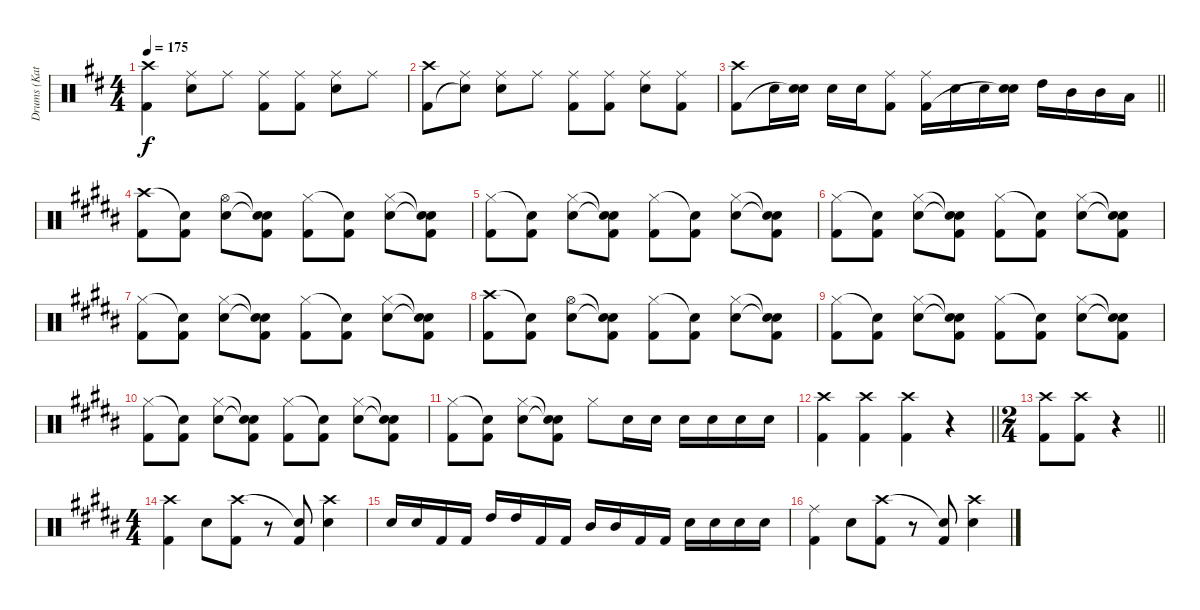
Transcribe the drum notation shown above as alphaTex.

\track ("Drums (Katsuji)" "Drums (Kat") {instrument percussion}
\staff {score}
\articulation defaults
\ts (4 4)
\tempo 175
\clef neutral
\ks d
("Crash high (hit)" "Kick (hit) 2").4{dy f} ("Ride (middle)" "Snare (hit) 2").8 "Ride (middle)".8 ("Ride (middle)" "Kick (hit) 2").8 ("Ride (middle)" "Kick (hit) 2").8 ("Ride (middle)" "Snare (hit) 2").8 "Ride (middle)".8 |
("Crash high (hit)" "Kick (hit) 2").8 ("Ride (middle)" "Snare (hit)"{t}).8 ("Ride (middle)" "Snare (hit) 2").8 "Ride (middle)".8 ("Ride (middle)" "Kick (hit) 2").8 ("Ride (middle)" "Kick (hit) 2").8 ("Ride (middle)" "Snare (hit) 2").8 ("Ride (middle)" "Kick (hit) 2").8 |
\barLineRight lightlight
("Crash high (hit)" "Kick (hit) 2").8 "Snare (hit) 2".16 ("Snare (hit) 2" "Snare (hit)"{t}).16 "Snare (hit) 2".16 "Snare (hit) 2".16 ("Ride (middle)" "Kick (hit) 2").8 ("Ride (middle)" "Kick (hit) 2").16 "Snare (hit) 2".16 "Snare (hit) 2".16 ("Snare (hit) 2" "Snare (hit)"{t}).16 "High Tom (hit)".16 "Mid Tom (hit)".16 "Mid Tom (hit)".16 "Low Tom (hit)".16 |
\ks b
("Crash high (hit)" "Kick (hit) 2").8 ("Snare (hit)"{t} "Kick (hit) 2").8 ("Hi-Hat (open)" "Snare (hit) 2").8 ("Snare (hit)"{t} "Snare (hit)"{t} "Kick (hit) 2").8 ("Hi-Hat (closed)" "Kick (hit) 2").8 ("Snare (hit)"{t} "Kick (hit) 2").8 ("Hi-Hat (closed)" "Snare (hit) 2").8 ("Snare (hit)"{t} "Snare (hit)"{t} "Kick (hit) 2").8 |
("Hi-Hat (closed)" "Kick (hit) 2").8 ("Snare (hit)"{t} "Kick (hit) 2").8 ("Hi-Hat (closed)" "Snare (hit) 2").8 ("Snare (hit)"{t} "Snare (hit)"{t} "Kick (hit) 2").8 ("Hi-Hat (closed)" "Kick (hit) 2").8 ("Snare (hit)"{t} "Kick (hit) 2").8 ("Hi-Hat (closed)" "Snare (hit) 2").8 ("Snare (hit)"{t} "Snare (hit)"{t} "Kick (hit) 2").8 |
("Hi-Hat (closed)" "Kick (hit) 2").8 ("Snare (hit)"{t} "Kick (hit) 2").8 ("Hi-Hat (closed)" "Snare (hit) 2").8 ("Snare (hit)"{t} "Snare (hit)"{t} "Kick (hit) 2").8 ("Hi-Hat (closed)" "Kick (hit) 2").8 ("Snare (hit)"{t} "Kick (hit) 2").8 ("Hi-Hat (closed)" "Snare (hit) 2").8 ("Snare (hit)"{t} "Snare (hit)"{t} "Kick (hit) 2").8 |
("Hi-Hat (closed)" "Kick (hit) 2").8 ("Snare (hit)"{t} "Kick (hit) 2").8 ("Hi-Hat (closed)" "Snare (hit) 2").8 ("Snare (hit)"{t} "Snare (hit)"{t} "Kick (hit) 2").8 ("Hi-Hat (closed)" "Kick (hit) 2").8 ("Snare (hit)"{t} "Kick (hit) 2").8 ("Hi-Hat (closed)" "Snare (hit) 2").8 ("Snare (hit)"{t} "Snare (hit)"{t} "Kick (hit) 2").8 |
("Crash high (hit)" "Kick (hit) 2").8 ("Snare (hit)"{t} "Kick (hit) 2").8 ("Hi-Hat (open)" "Snare (hit) 2").8 ("Snare (hit)"{t} "Snare (hit)"{t} "Kick (hit) 2").8 ("Hi-Hat (closed)" "Kick (hit) 2").8 ("Snare (hit)"{t} "Kick (hit) 2").8 ("Hi-Hat (closed)" "Snare (hit) 2").8 ("Snare (hit)"{t} "Snare (hit)"{t} "Kick (hit) 2").8 |
("Hi-Hat (closed)" "Kick (hit) 2").8 ("Snare (hit)"{t} "Kick (hit) 2").8 ("Hi-Hat (closed)" "Snare (hit) 2").8 ("Snare (hit)"{t} "Snare (hit)"{t} "Kick (hit) 2").8 ("Hi-Hat (closed)" "Kick (hit) 2").8 ("Snare (hit)"{t} "Kick (hit) 2").8 ("Hi-Hat (closed)" "Snare (hit) 2").8 ("Snare (hit)"{t} "Snare (hit)"{t} "Kick (hit) 2").8 |
("Hi-Hat (closed)" "Kick (hit) 2").8 ("Snare (hit)"{t} "Kick (hit) 2").8 ("Hi-Hat (closed)" "Snare (hit) 2").8 ("Snare (hit)"{t} "Snare (hit)"{t} "Kick (hit) 2").8 ("Hi-Hat (closed)" "Kick (hit) 2").8 ("Snare (hit)"{t} "Kick (hit) 2").8 ("Hi-Hat (closed)" "Snare (hit) 2").8 ("Snare (hit)"{t} "Snare (hit)"{t} "Kick (hit) 2").8 |
("Hi-Hat (closed)" "Kick (hit) 2").8 ("Snare (hit)"{t} "Kick (hit) 2").8 ("Hi-Hat (closed)" "Snare (hit) 2").8 ("Snare (hit)"{t} "Snare (hit)"{t} "Kick (hit) 2").8 "Hi-Hat (closed)".8 "Snare (hit) 2".16 "Snare (hit) 2".16 "Snare (hit) 2".16 "Snare (hit) 2".16 "Snare (hit) 2".16 "Snare (hit) 2".16 |
\barLineRight lightlight
("Crash high (hit)" "Kick (hit) 2").4 ("Crash high (hit)" "Kick (hit) 2").4 ("Crash high (hit)" "Kick (hit) 2").4 r.4 |
\ts (2 4)
\barLineRight lightlight
("Crash high (hit)" "Kick (hit) 2").8 ("Crash high (hit)" "Kick (hit) 2").8 r.4 |
\ts (4 4)
("Crash high (hit)" "Kick (hit) 2").4 "Snare (hit) 2".8 ("Crash high (hit)" "Kick (hit) 2").8 r.8 ("Snare (hit)"{t} "Kick (hit) 2").8 ("Crash high (hit)" "Snare (hit) 2").4 |
"Snare (hit) 2".16 "Snare (hit) 2".16 "Kick (hit) 2".16 "Kick (hit) 2".16 "High Tom (hit)".16 "High Tom (hit)".16 "Kick (hit) 2".16 "Kick (hit) 2".16 "Mid Tom (hit)".16 "Mid Tom (hit)".16 "Kick (hit) 2".16 "Kick (hit) 2".16 "Snare (hit) 2".16 "Snare (hit) 2".16 "Snare (hit) 2".16 "Snare (hit) 2".16 |
("Ride (middle)" "Kick (hit) 2").4 "Snare (hit) 2".8 ("Crash high (hit)" "Kick (hit) 2").8 r.8 ("Snare (hit)"{t} "Kick (hit) 2").8 ("Crash high (hit)" "Snare (hit) 2").4
